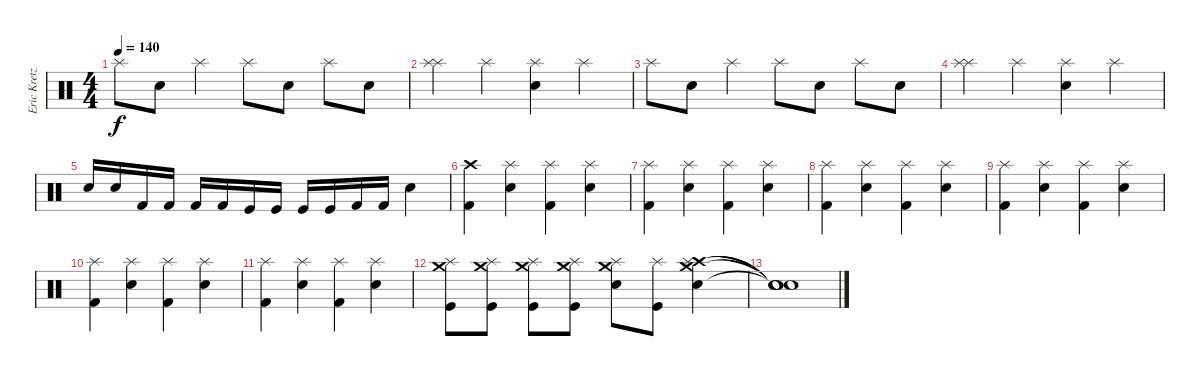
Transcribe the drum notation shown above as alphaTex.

\track ("Eric Kretz" "Eric Kretz") {instrument percussion}
\staff {score}
\articulation defaults
\ts (4 4)
\tempo 140
\clef neutral
\ks c "Splash (hit)".8{dy f} "Snare (hit) 2".8 "Splash (hit)".4 "Splash (hit)".8 "Snare (hit) 2".8 "Splash (hit)".8 "Snare (hit) 2".8
|
("Splash (hit)" "Splash (hit)").4 "Splash (hit)".4 ("Splash (hit)" "Snare (hit) 2").4 "Splash (hit)".4 |
"Splash (hit)".8 "Snare (hit) 2".8 "Splash (hit)".4 "Splash (hit)".8 "Snare (hit) 2".8 "Splash (hit)".8 "Snare (hit) 2".8 |
("Splash (hit)" "Splash (hit)").4 "Splash (hit)".4 ("Splash (hit)" "Snare (hit) 2").4 "Splash (hit)".4 |
"Snare (hit) 2".16 "Snare (hit) 2".16 "Kick (hit) 2".16 "Kick (hit) 2".16 "Kick (hit) 2".16 "Kick (hit) 2".16 "Kick (hit)".16 "Kick (hit)".16 "Kick (hit)".16 "Kick (hit)".16 "Kick (hit) 2".16 "Kick (hit) 2".16 "Snare (hit) 2".4 |
("Kick (hit) 2" "Crash high (hit)").4 ("Snare (hit) 2" "Splash (hit)").4 ("Kick (hit) 2" "Splash (hit)").4 ("Snare (hit) 2" "Splash (hit)").4 |
("Kick (hit) 2" "Splash (hit)").4 ("Snare (hit) 2" "Splash (hit)").4 ("Kick (hit) 2" "Splash (hit)").4 ("Snare (hit) 2" "Splash (hit)").4 |
("Kick (hit) 2" "Splash (hit)").4 ("Snare (hit) 2" "Splash (hit)").4 ("Kick (hit) 2" "Splash (hit)").4 ("Snare (hit) 2" "Splash (hit)").4 |
("Kick (hit) 2" "Splash (hit)").4 ("Snare (hit) 2" "Splash (hit)").4 ("Kick (hit) 2" "Splash (hit)").4 ("Snare (hit) 2" "Splash (hit)").4 |
("Kick (hit) 2" "Splash (hit)").4 ("Snare (hit) 2" "Splash (hit)").4 ("Kick (hit) 2" "Splash (hit)").4 ("Snare (hit) 2" "Splash (hit)").4 |
("Kick (hit) 2" "Splash (hit)").4 ("Snare (hit) 2" "Splash (hit)").4 ("Kick (hit) 2" "Splash (hit)").4 ("Snare (hit) 2" "Splash (hit)").4 |
("Crash medium (hit)" "Splash (hit)" "Kick (hit)").8 ("Crash medium (hit)" "Splash (hit)" "Kick (hit)").8 ("Crash medium (hit)" "Splash (hit)" "Kick (hit)").8 ("Crash medium (hit)" "Splash (hit)" "Kick (hit)").8 ("Crash medium (hit)" "Splash (hit)" "Snare (hit) 2").8 ("Splash (hit)" "Kick (hit)").8 ("Crash high (hit)" "Splash (hit)" "Crash medium (hit)" "Snare (hit) 2").4 |
("Snare (hit)"{t} "Snare (hit)"{t} "Snare (hit)"{t} "Snare (hit)"{t}).1
